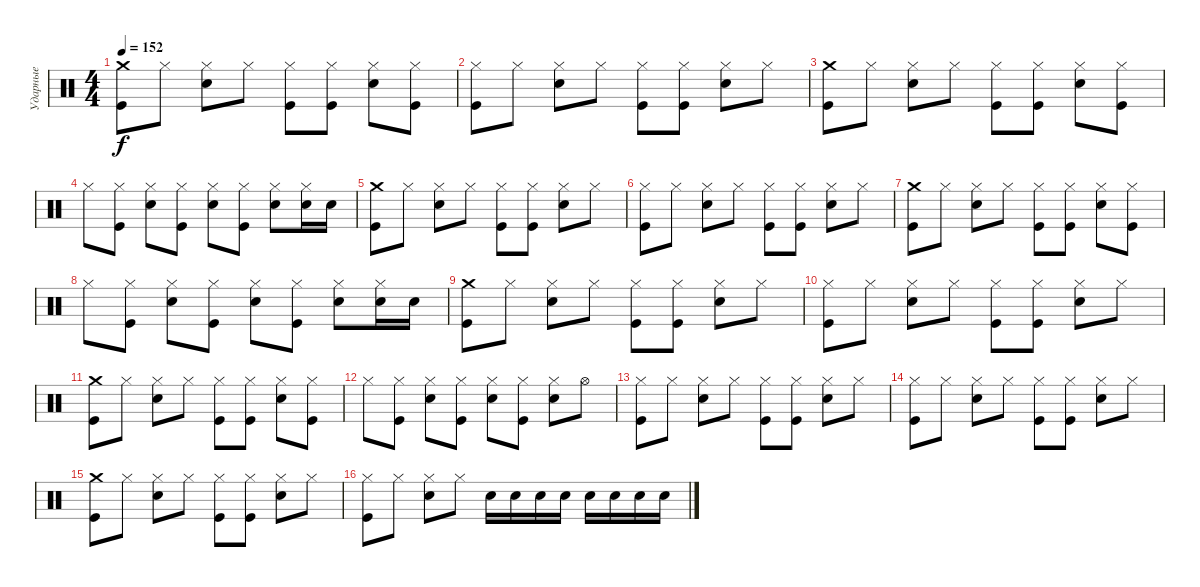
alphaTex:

\track ("Ударные" "Ударные") {instrument percussion}
\staff {score}
\articulation defaults
\ts (4 4)
\tempo 152
\clef neutral
\ks c
("Crash medium (hit)" "Kick (hit)").8{dy f} "Hi-Hat (closed)".8 ("Hi-Hat (closed)" "Electric Snare (hit)").8 "Hi-Hat (closed)".8 ("Hi-Hat (closed)" "Kick (hit)").8 ("Hi-Hat (closed)" "Kick (hit)").8 ("Hi-Hat (closed)" "Electric Snare (hit)").8 ("Hi-Hat (closed)" "Kick (hit)").8 |
("Hi-Hat (closed)" "Kick (hit)").8 "Hi-Hat (closed)".8 ("Hi-Hat (closed)" "Electric Snare (hit)").8 "Hi-Hat (closed)".8 ("Hi-Hat (closed)" "Kick (hit)").8 ("Hi-Hat (closed)" "Kick (hit)").8 ("Hi-Hat (closed)" "Electric Snare (hit)").8 "Hi-Hat (closed)".8 |
("Crash medium (hit)" "Kick (hit)").8 "Hi-Hat (closed)".8 ("Hi-Hat (closed)" "Electric Snare (hit)").8 "Hi-Hat (closed)".8 ("Hi-Hat (closed)" "Kick (hit)").8 ("Hi-Hat (closed)" "Kick (hit)").8 ("Hi-Hat (closed)" "Electric Snare (hit)").8 ("Hi-Hat (closed)" "Kick (hit)").8 |
"Hi-Hat (closed)".8 ("Hi-Hat (closed)" "Kick (hit)").8 ("Hi-Hat (closed)" "Electric Snare (hit)").8 ("Hi-Hat (closed)" "Kick (hit)").8 ("Hi-Hat (closed)" "Electric Snare (hit)").8 ("Hi-Hat (closed)" "Kick (hit)").8 ("Hi-Hat (closed)" "Electric Snare (hit)").8 ("Hi-Hat (closed)" "Electric Snare (hit)").16 "Electric Snare (hit)".16 |
("Crash medium (hit)" "Kick (hit)").8 "Hi-Hat (closed)".8 ("Hi-Hat (closed)" "Electric Snare (hit)").8 "Hi-Hat (closed)".8 ("Hi-Hat (closed)" "Kick (hit)").8 ("Hi-Hat (closed)" "Kick (hit)").8 ("Hi-Hat (closed)" "Electric Snare (hit)").8 "Hi-Hat (closed)".8 |
("Hi-Hat (closed)" "Kick (hit)").8 "Hi-Hat (closed)".8 ("Hi-Hat (closed)" "Electric Snare (hit)").8 "Hi-Hat (closed)".8 ("Hi-Hat (closed)" "Kick (hit)").8 ("Hi-Hat (closed)" "Kick (hit)").8 ("Hi-Hat (closed)" "Electric Snare (hit)").8 "Hi-Hat (closed)".8 |
("Crash medium (hit)" "Kick (hit)").8 "Hi-Hat (closed)".8 ("Hi-Hat (closed)" "Electric Snare (hit)").8 "Hi-Hat (closed)".8 ("Hi-Hat (closed)" "Kick (hit)").8 ("Hi-Hat (closed)" "Kick (hit)").8 ("Hi-Hat (closed)" "Electric Snare (hit)").8 ("Hi-Hat (closed)" "Kick (hit)").8 |
"Hi-Hat (closed)".8 ("Hi-Hat (closed)" "Kick (hit)").8 ("Hi-Hat (closed)" "Electric Snare (hit)").8 ("Hi-Hat (closed)" "Kick (hit)").8 ("Hi-Hat (closed)" "Electric Snare (hit)").8 ("Hi-Hat (closed)" "Kick (hit)").8 ("Hi-Hat (closed)" "Electric Snare (hit)").8 ("Hi-Hat (closed)" "Electric Snare (hit)").16 "Electric Snare (hit)".16 |
("Crash medium (hit)" "Kick (hit)").8 "Hi-Hat (closed)".8 ("Hi-Hat (closed)" "Electric Snare (hit)").8 "Hi-Hat (closed)".8 ("Hi-Hat (closed)" "Kick (hit)").8 ("Hi-Hat (closed)" "Kick (hit)").8 ("Hi-Hat (closed)" "Electric Snare (hit)").8 "Hi-Hat (closed)".8 |
("Hi-Hat (closed)" "Kick (hit)").8 "Hi-Hat (closed)".8 ("Hi-Hat (closed)" "Electric Snare (hit)").8 "Hi-Hat (closed)".8 ("Hi-Hat (closed)" "Kick (hit)").8 ("Hi-Hat (closed)" "Kick (hit)").8 ("Hi-Hat (closed)" "Electric Snare (hit)").8 "Hi-Hat (closed)".8 |
("Crash medium (hit)" "Kick (hit)").8 "Hi-Hat (closed)".8 ("Hi-Hat (closed)" "Electric Snare (hit)").8 "Hi-Hat (closed)".8 ("Hi-Hat (closed)" "Kick (hit)").8 ("Hi-Hat (closed)" "Kick (hit)").8 ("Hi-Hat (closed)" "Electric Snare (hit)").8 ("Hi-Hat (closed)" "Kick (hit)").8 |
"Hi-Hat (closed)".8 ("Hi-Hat (closed)" "Kick (hit)").8 ("Hi-Hat (closed)" "Electric Snare (hit)").8 ("Hi-Hat (closed)" "Kick (hit)").8 ("Hi-Hat (closed)" "Electric Snare (hit)").8 ("Hi-Hat (closed)" "Kick (hit)").8 ("Hi-Hat (closed)" "Electric Snare (hit)").8 "Hi-Hat (open)".8 |
("Hi-Hat (closed)" "Kick (hit)").8 "Hi-Hat (closed)".8 ("Hi-Hat (closed)" "Electric Snare (hit)").8 "Hi-Hat (closed)".8 ("Hi-Hat (closed)" "Kick (hit)").8 ("Hi-Hat (closed)" "Kick (hit)").8 ("Hi-Hat (closed)" "Electric Snare (hit)").8 "Hi-Hat (closed)".8 |
("Hi-Hat (closed)" "Kick (hit)").8 "Hi-Hat (closed)".8 ("Hi-Hat (closed)" "Electric Snare (hit)").8 "Hi-Hat (closed)".8 ("Hi-Hat (closed)" "Kick (hit)").8 ("Hi-Hat (closed)" "Kick (hit)").8 ("Hi-Hat (closed)" "Electric Snare (hit)").8 "Hi-Hat (closed)".8 |
("Crash medium (hit)" "Kick (hit)").8 "Hi-Hat (closed)".8 ("Hi-Hat (closed)" "Electric Snare (hit)").8 "Hi-Hat (closed)".8 ("Hi-Hat (closed)" "Kick (hit)").8 ("Hi-Hat (closed)" "Kick (hit)").8 ("Hi-Hat (closed)" "Electric Snare (hit)").8 "Hi-Hat (closed)".8 |
("Hi-Hat (closed)" "Kick (hit)").8 "Hi-Hat (closed)".8 ("Hi-Hat (closed)" "Electric Snare (hit)").8 "Hi-Hat (closed)".8 "Electric Snare (hit)".16 "Electric Snare (hit)".16 "Electric Snare (hit)".16 "Electric Snare (hit)".16 "Electric Snare (hit)".16 "Electric Snare (hit)".16 "Electric Snare (hit)".16 "Electric Snare (hit)".16
